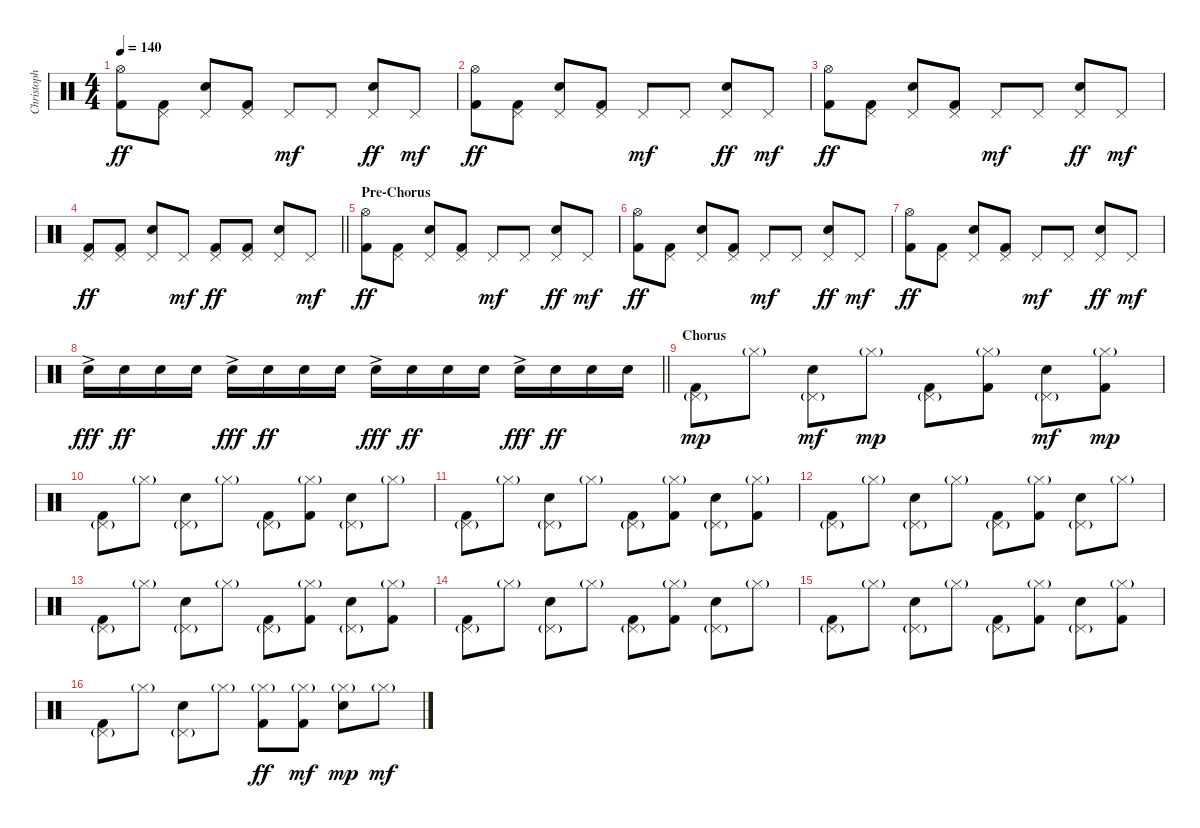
\track ("Christoph" "Christoph") {instrument percussion}
\staff {score}
\articulation defaults
\ts (4 4)
\tempo 140
\clef neutral
\ks c
("Hi-Hat (open)" "Kick (hit) 2").8{dy ff} ("Pedal Hi-Hat (hit)" "Kick (hit) 2").8 ("Pedal Hi-Hat (hit)" "Electric Snare (hit)").8 ("Pedal Hi-Hat (hit)" "Kick (hit) 2").8 "Pedal Hi-Hat (hit)".8{dy mf} "Pedal Hi-Hat (hit)".8 ("Pedal Hi-Hat (hit)" "Electric Snare (hit)").8{dy ff} "Pedal Hi-Hat (hit)".8{dy mf} |
("Hi-Hat (open)" "Kick (hit) 2").8{dy ff} ("Pedal Hi-Hat (hit)" "Kick (hit) 2").8 ("Pedal Hi-Hat (hit)" "Electric Snare (hit)").8 ("Pedal Hi-Hat (hit)" "Kick (hit) 2").8 "Pedal Hi-Hat (hit)".8{dy mf} "Pedal Hi-Hat (hit)".8 ("Pedal Hi-Hat (hit)" "Electric Snare (hit)").8{dy ff} "Pedal Hi-Hat (hit)".8{dy mf} |
("Hi-Hat (open)" "Kick (hit) 2").8{dy ff} ("Pedal Hi-Hat (hit)" "Kick (hit) 2").8 ("Pedal Hi-Hat (hit)" "Electric Snare (hit)").8 ("Pedal Hi-Hat (hit)" "Kick (hit) 2").8 "Pedal Hi-Hat (hit)".8{dy mf} "Pedal Hi-Hat (hit)".8 ("Pedal Hi-Hat (hit)" "Electric Snare (hit)").8{dy ff} "Pedal Hi-Hat (hit)".8{dy mf} |
\barLineRight lightlight
("Pedal Hi-Hat (hit)" "Kick (hit) 2").8{dy ff} ("Pedal Hi-Hat (hit)" "Kick (hit) 2").8 ("Pedal Hi-Hat (hit)" "Electric Snare (hit)").8 "Pedal Hi-Hat (hit)".8{dy mf} ("Pedal Hi-Hat (hit)" "Kick (hit) 2").8{dy ff} ("Pedal Hi-Hat (hit)" "Kick (hit) 2").8 ("Pedal Hi-Hat (hit)" "Electric Snare (hit)").8 "Pedal Hi-Hat (hit)".8{dy mf} |
\section ("" "Pre-Chorus")
("Hi-Hat (open)" "Kick (hit) 2").8{dy ff} ("Pedal Hi-Hat (hit)" "Kick (hit) 2").8 ("Pedal Hi-Hat (hit)" "Electric Snare (hit)").8 ("Pedal Hi-Hat (hit)" "Kick (hit) 2").8 "Pedal Hi-Hat (hit)".8{dy mf} "Pedal Hi-Hat (hit)".8 ("Pedal Hi-Hat (hit)" "Electric Snare (hit)").8{dy ff} "Pedal Hi-Hat (hit)".8{dy mf} |
("Hi-Hat (open)" "Kick (hit) 2").8{dy ff} ("Pedal Hi-Hat (hit)" "Kick (hit) 2").8 ("Pedal Hi-Hat (hit)" "Electric Snare (hit)").8 ("Pedal Hi-Hat (hit)" "Kick (hit) 2").8 "Pedal Hi-Hat (hit)".8{dy mf} "Pedal Hi-Hat (hit)".8 ("Pedal Hi-Hat (hit)" "Electric Snare (hit)").8{dy ff} "Pedal Hi-Hat (hit)".8{dy mf} |
("Hi-Hat (open)" "Kick (hit) 2").8{dy ff} ("Pedal Hi-Hat (hit)" "Kick (hit) 2").8 ("Pedal Hi-Hat (hit)" "Electric Snare (hit)").8 ("Pedal Hi-Hat (hit)" "Kick (hit) 2").8 "Pedal Hi-Hat (hit)".8{dy mf} "Pedal Hi-Hat (hit)".8 ("Pedal Hi-Hat (hit)" "Electric Snare (hit)").8{dy ff} "Pedal Hi-Hat (hit)".8{dy mf} |
\barLineRight lightlight "Electric Snare (hit)"{ac}.16{dy fff} "Electric Snare (hit)".16{dy ff} "Electric Snare (hit)".16 "Electric Snare (hit)".16 "Electric Snare (hit)"{ac}.16{dy fff} "Electric Snare (hit)".16{dy ff} "Electric Snare (hit)".16 "Electric Snare (hit)".16 "Electric Snare (hit)"{ac}.16{dy fff} "Electric Snare (hit)".16{dy ff} "Electric Snare (hit)".16 "Electric Snare (hit)".16 "Electric Snare (hit)"{ac}.16{dy fff} "Electric Snare (hit)".16{dy ff} "Electric Snare (hit)".16 "Electric Snare (hit)".16
|
\section ("" "Chorus")
("Pedal Hi-Hat (hit)"{g} "Kick (hit) 2").8{dy mp} "Hi-Hat (closed)"{g}.8 ("Pedal Hi-Hat (hit)"{g} "Electric Snare (hit)").8{dy mf} "Hi-Hat (closed)"{g}.8{dy mp} ("Pedal Hi-Hat (hit)"{g} "Kick (hit) 2").8 ("Hi-Hat (closed)"{g} "Kick (hit) 2").8 ("Pedal Hi-Hat (hit)"{g} "Electric Snare (hit)").8{dy mf} ("Hi-Hat (closed)"{g} "Kick (hit) 2").8{dy mp} |
("Pedal Hi-Hat (hit)"{g} "Kick (hit) 2").8 "Hi-Hat (closed)"{g}.8 ("Pedal Hi-Hat (hit)"{g} "Electric Snare (hit)").8 "Hi-Hat (closed)"{g}.8 ("Pedal Hi-Hat (hit)"{g} "Kick (hit) 2").8 ("Hi-Hat (closed)"{g} "Kick (hit) 2").8 ("Pedal Hi-Hat (hit)"{g} "Electric Snare (hit)").8 "Hi-Hat (closed)"{g}.8 |
("Pedal Hi-Hat (hit)"{g} "Kick (hit) 2").8 "Hi-Hat (closed)"{g}.8 ("Pedal Hi-Hat (hit)"{g} "Electric Snare (hit)").8 "Hi-Hat (closed)"{g}.8 ("Pedal Hi-Hat (hit)"{g} "Kick (hit) 2").8 ("Hi-Hat (closed)"{g} "Kick (hit) 2").8 ("Pedal Hi-Hat (hit)"{g} "Electric Snare (hit)").8 ("Hi-Hat (closed)"{g} "Kick (hit) 2").8 |
("Pedal Hi-Hat (hit)"{g} "Kick (hit) 2").8 "Hi-Hat (closed)"{g}.8 ("Pedal Hi-Hat (hit)"{g} "Electric Snare (hit)").8 "Hi-Hat (closed)"{g}.8 ("Pedal Hi-Hat (hit)"{g} "Kick (hit) 2").8 ("Hi-Hat (closed)"{g} "Kick (hit) 2").8 ("Pedal Hi-Hat (hit)"{g} "Electric Snare (hit)").8 "Hi-Hat (closed)"{g}.8 |
("Pedal Hi-Hat (hit)"{g} "Kick (hit) 2").8 "Hi-Hat (closed)"{g}.8 ("Pedal Hi-Hat (hit)"{g} "Electric Snare (hit)").8 "Hi-Hat (closed)"{g}.8 ("Pedal Hi-Hat (hit)"{g} "Kick (hit) 2").8 ("Hi-Hat (closed)"{g} "Kick (hit) 2").8 ("Pedal Hi-Hat (hit)"{g} "Electric Snare (hit)").8 ("Hi-Hat (closed)"{g} "Kick (hit) 2").8 |
("Pedal Hi-Hat (hit)"{g} "Kick (hit) 2").8 "Hi-Hat (closed)"{g}.8 ("Pedal Hi-Hat (hit)"{g} "Electric Snare (hit)").8 "Hi-Hat (closed)"{g}.8 ("Pedal Hi-Hat (hit)"{g} "Kick (hit) 2").8 ("Hi-Hat (closed)"{g} "Kick (hit) 2").8 ("Pedal Hi-Hat (hit)"{g} "Electric Snare (hit)").8 "Hi-Hat (closed)"{g}.8 |
("Pedal Hi-Hat (hit)"{g} "Kick (hit) 2").8 "Hi-Hat (closed)"{g}.8 ("Pedal Hi-Hat (hit)"{g} "Electric Snare (hit)").8 "Hi-Hat (closed)"{g}.8 ("Pedal Hi-Hat (hit)"{g} "Kick (hit) 2").8 ("Hi-Hat (closed)"{g} "Kick (hit) 2").8 ("Pedal Hi-Hat (hit)"{g} "Electric Snare (hit)").8 ("Hi-Hat (closed)"{g} "Kick (hit) 2").8 |
("Pedal Hi-Hat (hit)"{g} "Kick (hit) 2").8 "Hi-Hat (closed)"{g}.8 ("Pedal Hi-Hat (hit)"{g} "Electric Snare (hit)").8 "Hi-Hat (closed)"{g}.8 ("Hi-Hat (closed)"{g} "Kick (hit) 2").8{dy ff} ("Hi-Hat (closed)"{g} "Kick (hit) 2").8{dy mf} ("Hi-Hat (closed)"{g} "Electric Snare (hit)").8{dy mp} "Hi-Hat (closed)"{g}.8{dy mf}
